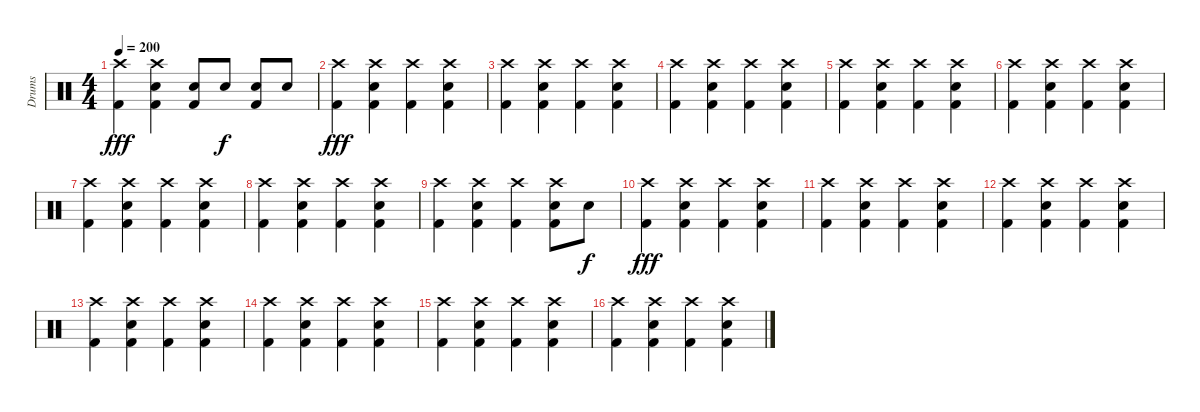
\track ("Drums" "Drums") {instrument percussion}
\staff {score}
\articulation defaults
\ts (4 4)
\tempo 200
\clef neutral
\ks c
("Crash high (hit)" "Kick (hit) 2").4{dy fff} ("Crash high (hit)" "Snare (hit) 2" "Kick (hit) 2").4 ("Snare (hit) 2" "Kick (hit) 2").8 "Snare (hit) 2".8{dy f} ("Snare (hit) 2" "Kick (hit) 2").8 "Snare (hit) 2".8 |
("Crash high (hit)" "Kick (hit) 2").4{dy fff} ("Crash high (hit)" "Snare (hit) 2" "Kick (hit) 2").4 ("Crash high (hit)" "Kick (hit) 2").4 ("Crash high (hit)" "Snare (hit) 2" "Kick (hit) 2").4 |
("Crash high (hit)" "Kick (hit) 2").4 ("Crash high (hit)" "Snare (hit) 2" "Kick (hit) 2").4 ("Crash high (hit)" "Kick (hit) 2").4 ("Crash high (hit)" "Snare (hit) 2" "Kick (hit) 2").4 |
("Crash high (hit)" "Kick (hit) 2").4 ("Crash high (hit)" "Snare (hit) 2" "Kick (hit) 2").4 ("Crash high (hit)" "Kick (hit) 2").4 ("Crash high (hit)" "Snare (hit) 2" "Kick (hit) 2").4 |
("Crash high (hit)" "Kick (hit) 2").4 ("Crash high (hit)" "Snare (hit) 2" "Kick (hit) 2").4 ("Crash high (hit)" "Kick (hit) 2").4 ("Crash high (hit)" "Snare (hit) 2" "Kick (hit) 2").4 |
("Crash high (hit)" "Kick (hit) 2").4 ("Crash high (hit)" "Snare (hit) 2" "Kick (hit) 2").4 ("Crash high (hit)" "Kick (hit) 2").4 ("Crash high (hit)" "Snare (hit) 2" "Kick (hit) 2").4 |
("Crash high (hit)" "Kick (hit) 2").4 ("Crash high (hit)" "Snare (hit) 2" "Kick (hit) 2").4 ("Crash high (hit)" "Kick (hit) 2").4 ("Crash high (hit)" "Snare (hit) 2" "Kick (hit) 2").4 |
("Crash high (hit)" "Kick (hit) 2").4 ("Crash high (hit)" "Snare (hit) 2" "Kick (hit) 2").4 ("Crash high (hit)" "Kick (hit) 2").4 ("Crash high (hit)" "Snare (hit) 2" "Kick (hit) 2").4 |
("Crash high (hit)" "Kick (hit) 2").4 ("Crash high (hit)" "Snare (hit) 2" "Kick (hit) 2").4 ("Crash high (hit)" "Kick (hit) 2").4 ("Crash high (hit)" "Snare (hit) 2" "Kick (hit) 2").8 "Snare (hit) 2".8{dy f} |
("Crash high (hit)" "Kick (hit) 2").4{dy fff} ("Crash high (hit)" "Snare (hit) 2" "Kick (hit) 2").4 ("Crash high (hit)" "Kick (hit) 2").4 ("Crash high (hit)" "Snare (hit) 2" "Kick (hit) 2").4 |
("Crash high (hit)" "Kick (hit) 2").4 ("Crash high (hit)" "Snare (hit) 2" "Kick (hit) 2").4 ("Crash high (hit)" "Kick (hit) 2").4 ("Crash high (hit)" "Snare (hit) 2" "Kick (hit) 2").4 |
("Crash high (hit)" "Kick (hit) 2").4 ("Crash high (hit)" "Snare (hit) 2" "Kick (hit) 2").4 ("Crash high (hit)" "Kick (hit) 2").4 ("Crash high (hit)" "Snare (hit) 2" "Kick (hit) 2").4 |
("Crash high (hit)" "Kick (hit) 2").4 ("Crash high (hit)" "Snare (hit) 2" "Kick (hit) 2").4 ("Crash high (hit)" "Kick (hit) 2").4 ("Crash high (hit)" "Snare (hit) 2" "Kick (hit) 2").4 |
("Crash high (hit)" "Kick (hit) 2").4 ("Crash high (hit)" "Snare (hit) 2" "Kick (hit) 2").4 ("Crash high (hit)" "Kick (hit) 2").4 ("Crash high (hit)" "Snare (hit) 2" "Kick (hit) 2").4 |
("Crash high (hit)" "Kick (hit) 2").4 ("Crash high (hit)" "Snare (hit) 2" "Kick (hit) 2").4 ("Crash high (hit)" "Kick (hit) 2").4 ("Crash high (hit)" "Snare (hit) 2" "Kick (hit) 2").4 |
("Crash high (hit)" "Kick (hit) 2").4 ("Crash high (hit)" "Snare (hit) 2" "Kick (hit) 2").4 ("Crash high (hit)" "Kick (hit) 2").4 ("Crash high (hit)" "Snare (hit) 2" "Kick (hit) 2").4
